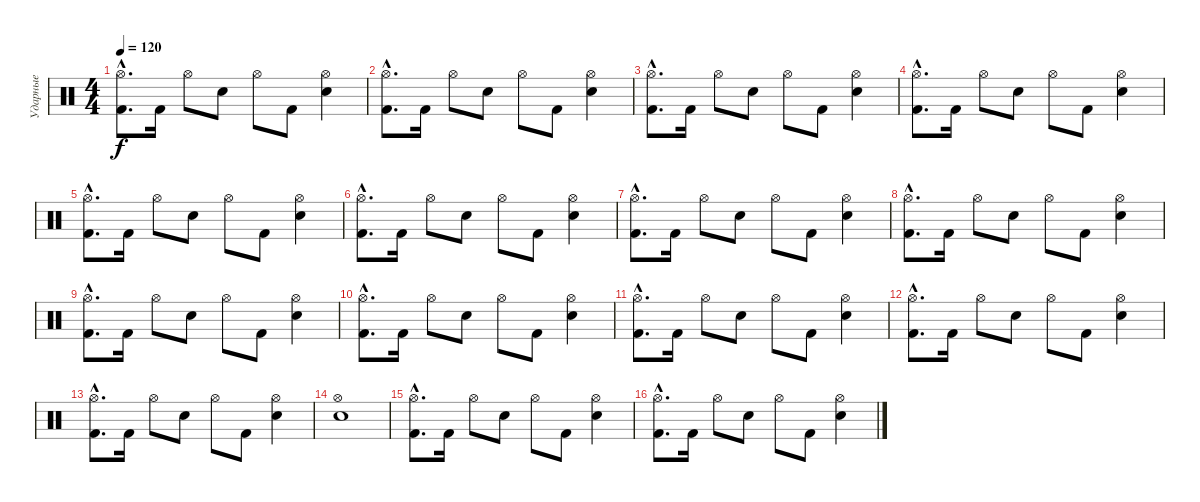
\track ("Ударные" "Ударные") {instrument percussion}
\staff {score}
\articulation defaults
\ts (4 4)
\tempo 120
\clef neutral
\ks c
("Hi-Hat (open)"{hac} "Kick (hit) 2"{hac}).8{d dy f} "Kick (hit) 2".16 "Hi-Hat (open)".8 "Snare (hit) 2".8 "Hi-Hat (open)".8 "Kick (hit) 2".8 ("Hi-Hat (open)" "Snare (hit) 2").4 |
("Hi-Hat (open)"{hac} "Kick (hit) 2"{hac}).8{d} "Kick (hit) 2".16 "Hi-Hat (open)".8 "Snare (hit) 2".8 "Hi-Hat (open)".8 "Kick (hit) 2".8 ("Hi-Hat (open)" "Snare (hit) 2").4 |
("Hi-Hat (open)"{hac} "Kick (hit) 2"{hac}).8{d} "Kick (hit) 2".16 "Hi-Hat (open)".8 "Snare (hit) 2".8 "Hi-Hat (open)".8 "Kick (hit) 2".8 ("Hi-Hat (open)" "Snare (hit) 2").4 |
("Hi-Hat (open)"{hac} "Kick (hit) 2"{hac}).8{d} "Kick (hit) 2".16 "Hi-Hat (open)".8 "Snare (hit) 2".8 "Hi-Hat (open)".8 "Kick (hit) 2".8 ("Hi-Hat (open)" "Snare (hit) 2").4 |
("Hi-Hat (open)"{hac} "Kick (hit) 2"{hac}).8{d} "Kick (hit) 2".16 "Hi-Hat (open)".8 "Snare (hit) 2".8 "Hi-Hat (open)".8 "Kick (hit) 2".8 ("Hi-Hat (open)" "Snare (hit) 2").4 |
("Hi-Hat (open)"{hac} "Kick (hit) 2"{hac}).8{d} "Kick (hit) 2".16 "Hi-Hat (open)".8 "Snare (hit) 2".8 "Hi-Hat (open)".8 "Kick (hit) 2".8 ("Hi-Hat (open)" "Snare (hit) 2").4 |
("Hi-Hat (open)"{hac} "Kick (hit) 2"{hac}).8{d} "Kick (hit) 2".16 "Hi-Hat (open)".8 "Snare (hit) 2".8 "Hi-Hat (open)".8 "Kick (hit) 2".8 ("Hi-Hat (open)" "Snare (hit) 2").4 |
("Hi-Hat (open)"{hac} "Kick (hit) 2"{hac}).8{d} "Kick (hit) 2".16 "Hi-Hat (open)".8 "Snare (hit) 2".8 "Hi-Hat (open)".8 "Kick (hit) 2".8 ("Hi-Hat (open)" "Snare (hit) 2").4 |
("Hi-Hat (open)"{hac} "Kick (hit) 2"{hac}).8{d} "Kick (hit) 2".16 "Hi-Hat (open)".8 "Snare (hit) 2".8 "Hi-Hat (open)".8 "Kick (hit) 2".8 ("Hi-Hat (open)" "Snare (hit) 2").4 |
("Hi-Hat (open)"{hac} "Kick (hit) 2"{hac}).8{d} "Kick (hit) 2".16 "Hi-Hat (open)".8 "Snare (hit) 2".8 "Hi-Hat (open)".8 "Kick (hit) 2".8 ("Hi-Hat (open)" "Snare (hit) 2").4 |
("Hi-Hat (open)"{hac} "Kick (hit) 2"{hac}).8{d} "Kick (hit) 2".16 "Hi-Hat (open)".8 "Snare (hit) 2".8 "Hi-Hat (open)".8 "Kick (hit) 2".8 ("Hi-Hat (open)" "Snare (hit) 2").4 |
("Hi-Hat (open)"{hac} "Kick (hit) 2"{hac}).8{d} "Kick (hit) 2".16 "Hi-Hat (open)".8 "Snare (hit) 2".8 "Hi-Hat (open)".8 "Kick (hit) 2".8 ("Hi-Hat (open)" "Snare (hit) 2").4 |
("Hi-Hat (open)"{hac} "Kick (hit) 2"{hac}).8{d} "Kick (hit) 2".16 "Hi-Hat (open)".8 "Snare (hit) 2".8 "Hi-Hat (open)".8 "Kick (hit) 2".8 ("Hi-Hat (open)" "Snare (hit) 2").4 |
("Hi-Hat (open)" "Snare (hit) 2").1 |
("Hi-Hat (open)"{hac} "Kick (hit) 2"{hac}).8{d} "Kick (hit) 2".16 "Hi-Hat (open)".8 "Snare (hit) 2".8 "Hi-Hat (open)".8 "Kick (hit) 2".8 ("Hi-Hat (open)" "Snare (hit) 2").4 |
("Hi-Hat (open)"{hac} "Kick (hit) 2"{hac}).8{d} "Kick (hit) 2".16 "Hi-Hat (open)".8 "Snare (hit) 2".8 "Hi-Hat (open)".8 "Kick (hit) 2".8 ("Hi-Hat (open)" "Snare (hit) 2").4
